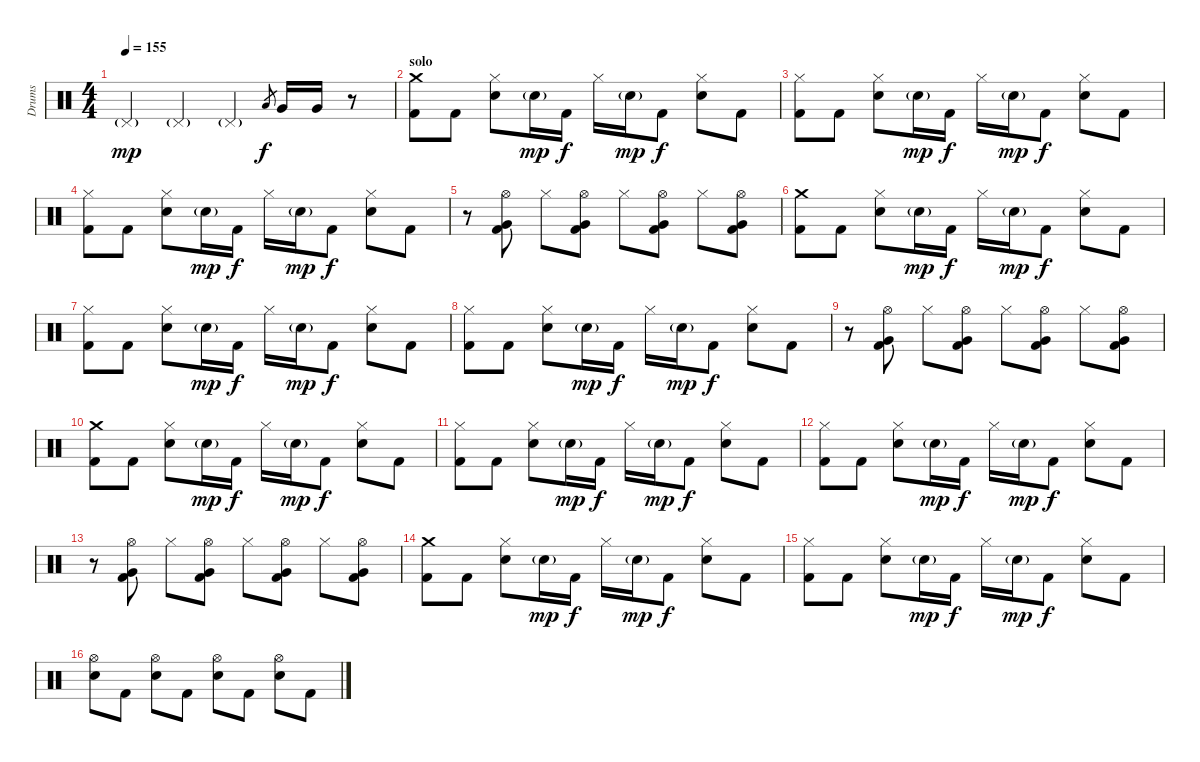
\track ("Drums" "Drums") {instrument percussion}
\staff {score}
\articulation defaults
\ts (4 4)
\tempo 155
\clef neutral
\ks c "Pedal Hi-Hat (hit)"{g}.4{dy mp} "Pedal Hi-Hat (hit)"{g}.4 "Pedal Hi-Hat (hit)"{g}.4 "Low Tom (hit)".8{gr dy f} "Very Low Tom (hit)".16 "Very Low Tom (hit)".16
r.8 |
\section ("" "solo")
("Crash medium (hit)" "Kick (hit) 2").8 "Kick (hit) 2".8 ("Hi-Hat (closed)" "Electric Snare (hit)").8 "Electric Snare (hit)"{g}.16{dy mp} "Kick (hit) 2".16{dy f} "Hi-Hat (closed)".16 "Electric Snare (hit)"{g}.16{dy mp} "Kick (hit) 2".8{dy f} ("Hi-Hat (closed)" "Electric Snare (hit)").8 "Kick (hit) 2".8 |
("Hi-Hat (closed)" "Kick (hit) 2").8 "Kick (hit) 2".8 ("Hi-Hat (closed)" "Electric Snare (hit)").8 "Electric Snare (hit)"{g}.16{dy mp} "Kick (hit) 2".16{dy f} "Hi-Hat (closed)".16 "Electric Snare (hit)"{g}.16{dy mp} "Kick (hit) 2".8{dy f} ("Hi-Hat (closed)" "Electric Snare (hit)").8 "Kick (hit) 2".8 |
("Hi-Hat (closed)" "Kick (hit) 2").8 "Kick (hit) 2".8 ("Hi-Hat (closed)" "Electric Snare (hit)").8 "Electric Snare (hit)"{g}.16{dy mp} "Kick (hit) 2".16{dy f} "Hi-Hat (closed)".16 "Electric Snare (hit)"{g}.16{dy mp} "Kick (hit) 2".8{dy f} ("Hi-Hat (closed)" "Electric Snare (hit)").8 "Kick (hit) 2".8 |
r.8 ("Hi-Hat (open)" "Very Low Tom (hit)" "Kick (hit) 2").8 "Hi-Hat (closed)".8 ("Hi-Hat (open)" "Very Low Tom (hit)" "Kick (hit) 2").8 "Hi-Hat (closed)".8 ("Hi-Hat (open)" "Very Low Tom (hit)" "Kick (hit) 2").8 "Hi-Hat (closed)".8 ("Hi-Hat (open)" "Very Low Tom (hit)" "Kick (hit) 2").8 |
("Crash medium (hit)" "Kick (hit) 2").8 "Kick (hit) 2".8 ("Hi-Hat (closed)" "Electric Snare (hit)").8 "Electric Snare (hit)"{g}.16{dy mp} "Kick (hit) 2".16{dy f} "Hi-Hat (closed)".16 "Electric Snare (hit)"{g}.16{dy mp} "Kick (hit) 2".8{dy f} ("Hi-Hat (closed)" "Electric Snare (hit)").8 "Kick (hit) 2".8 |
("Hi-Hat (closed)" "Kick (hit) 2").8 "Kick (hit) 2".8 ("Hi-Hat (closed)" "Electric Snare (hit)").8 "Electric Snare (hit)"{g}.16{dy mp} "Kick (hit) 2".16{dy f} "Hi-Hat (closed)".16 "Electric Snare (hit)"{g}.16{dy mp} "Kick (hit) 2".8{dy f} ("Hi-Hat (closed)" "Electric Snare (hit)").8 "Kick (hit) 2".8 |
("Hi-Hat (closed)" "Kick (hit) 2").8 "Kick (hit) 2".8 ("Hi-Hat (closed)" "Electric Snare (hit)").8 "Electric Snare (hit)"{g}.16{dy mp} "Kick (hit) 2".16{dy f} "Hi-Hat (closed)".16 "Electric Snare (hit)"{g}.16{dy mp} "Kick (hit) 2".8{dy f} ("Hi-Hat (closed)" "Electric Snare (hit)").8 "Kick (hit) 2".8 |
r.8 ("Hi-Hat (open)" "Very Low Tom (hit)" "Kick (hit) 2").8 "Hi-Hat (closed)".8 ("Hi-Hat (open)" "Very Low Tom (hit)" "Kick (hit) 2").8 "Hi-Hat (closed)".8 ("Hi-Hat (open)" "Very Low Tom (hit)" "Kick (hit) 2").8 "Hi-Hat (closed)".8 ("Hi-Hat (open)" "Very Low Tom (hit)" "Kick (hit) 2").8 |
("Crash medium (hit)" "Kick (hit) 2").8 "Kick (hit) 2".8 ("Hi-Hat (closed)" "Electric Snare (hit)").8 "Electric Snare (hit)"{g}.16{dy mp} "Kick (hit) 2".16{dy f} "Hi-Hat (closed)".16 "Electric Snare (hit)"{g}.16{dy mp} "Kick (hit) 2".8{dy f} ("Hi-Hat (closed)" "Electric Snare (hit)").8 "Kick (hit) 2".8 |
("Hi-Hat (closed)" "Kick (hit) 2").8 "Kick (hit) 2".8 ("Hi-Hat (closed)" "Electric Snare (hit)").8 "Electric Snare (hit)"{g}.16{dy mp} "Kick (hit) 2".16{dy f} "Hi-Hat (closed)".16 "Electric Snare (hit)"{g}.16{dy mp} "Kick (hit) 2".8{dy f} ("Hi-Hat (closed)" "Electric Snare (hit)").8 "Kick (hit) 2".8 |
("Hi-Hat (closed)" "Kick (hit) 2").8 "Kick (hit) 2".8 ("Hi-Hat (closed)" "Electric Snare (hit)").8 "Electric Snare (hit)"{g}.16{dy mp} "Kick (hit) 2".16{dy f} "Hi-Hat (closed)".16 "Electric Snare (hit)"{g}.16{dy mp} "Kick (hit) 2".8{dy f} ("Hi-Hat (closed)" "Electric Snare (hit)").8 "Kick (hit) 2".8 |
r.8 ("Hi-Hat (open)" "Very Low Tom (hit)" "Kick (hit) 2").8 "Hi-Hat (closed)".8 ("Hi-Hat (open)" "Very Low Tom (hit)" "Kick (hit) 2").8 "Hi-Hat (closed)".8 ("Hi-Hat (open)" "Very Low Tom (hit)" "Kick (hit) 2").8 "Hi-Hat (closed)".8 ("Hi-Hat (open)" "Very Low Tom (hit)" "Kick (hit) 2").8 |
("Crash medium (hit)" "Kick (hit) 2").8 "Kick (hit) 2".8 ("Hi-Hat (closed)" "Electric Snare (hit)").8 "Electric Snare (hit)"{g}.16{dy mp} "Kick (hit) 2".16{dy f} "Hi-Hat (closed)".16 "Electric Snare (hit)"{g}.16{dy mp} "Kick (hit) 2".8{dy f} ("Hi-Hat (closed)" "Electric Snare (hit)").8 "Kick (hit) 2".8 |
("Hi-Hat (closed)" "Kick (hit) 2").8 "Kick (hit) 2".8 ("Hi-Hat (closed)" "Electric Snare (hit)").8 "Electric Snare (hit)"{g}.16{dy mp} "Kick (hit) 2".16{dy f} "Hi-Hat (closed)".16 "Electric Snare (hit)"{g}.16{dy mp} "Kick (hit) 2".8{dy f} ("Hi-Hat (closed)" "Electric Snare (hit)").8 "Kick (hit) 2".8 |
("Hi-Hat (open)" "Electric Snare (hit)").8 "Kick (hit) 2".8 ("Hi-Hat (open)" "Electric Snare (hit)").8 "Kick (hit) 2".8 ("Hi-Hat (open)" "Electric Snare (hit)").8 "Kick (hit) 2".8 ("Hi-Hat (open)" "Electric Snare (hit)").8 "Kick (hit) 2".8
